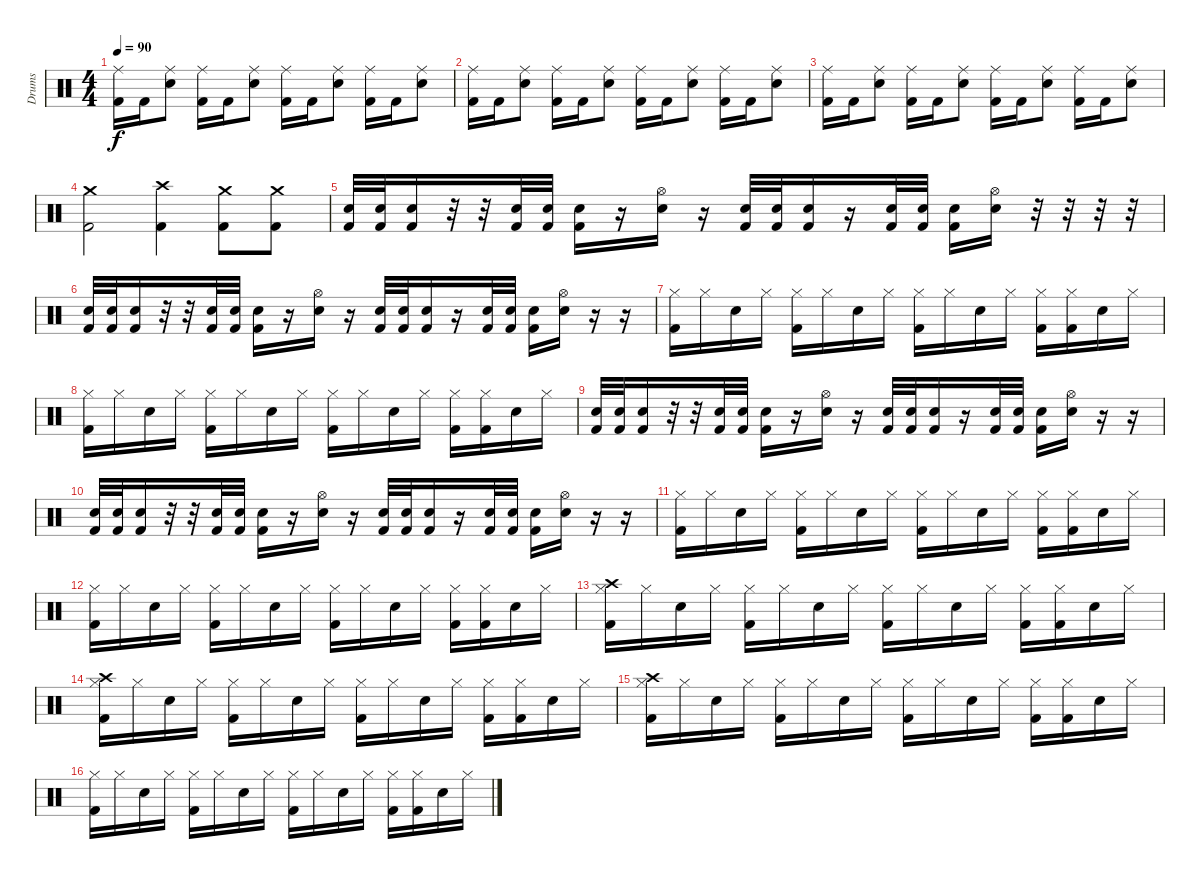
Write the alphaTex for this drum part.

\track ("Drums" "Drums") {instrument percussion}
\staff {score}
\articulation defaults
\ts (4 4)
\tempo 90
\clef neutral
\ks c
("Ride (middle)" "Kick (hit) 2").16{dy f} "Kick (hit) 2".16 ("Ride (middle)" "Electric Snare (hit)").8 ("Ride (middle)" "Kick (hit) 2").16 "Kick (hit) 2".16 ("Ride (middle)" "Electric Snare (hit)").8 ("Ride (middle)" "Kick (hit) 2").16 "Kick (hit) 2".16 ("Ride (middle)" "Electric Snare (hit)").8 ("Ride (middle)" "Kick (hit) 2").16 "Kick (hit) 2".16 ("Ride (middle)" "Electric Snare (hit)").8 |
("Ride (middle)" "Kick (hit) 2").16 "Kick (hit) 2".16 ("Ride (middle)" "Electric Snare (hit)").8 ("Ride (middle)" "Kick (hit) 2").16 "Kick (hit) 2".16 ("Ride (middle)" "Electric Snare (hit)").8 ("Ride (middle)" "Kick (hit) 2").16 "Kick (hit) 2".16 ("Ride (middle)" "Electric Snare (hit)").8 ("Ride (middle)" "Kick (hit) 2").16 "Kick (hit) 2".16 ("Ride (middle)" "Electric Snare (hit)").8 |
("Ride (middle)" "Kick (hit) 2").16 "Kick (hit) 2".16 ("Ride (middle)" "Electric Snare (hit)").8 ("Ride (middle)" "Kick (hit) 2").16 "Kick (hit) 2".16 ("Ride (middle)" "Electric Snare (hit)").8 ("Ride (middle)" "Kick (hit) 2").16 "Kick (hit) 2".16 ("Ride (middle)" "Electric Snare (hit)").8 ("Ride (middle)" "Kick (hit) 2").16 "Kick (hit) 2".16 ("Ride (middle)" "Electric Snare (hit)").8 |
("Crash medium (hit)" "Kick (hit) 2").2 ("Crash high (hit)" "Kick (hit) 2").4 ("Crash medium (hit)" "Kick (hit) 2").8 ("Crash medium (hit)" "Kick (hit) 2").8 |
("Electric Snare (hit)" "Kick (hit) 2").32 ("Electric Snare (hit)" "Kick (hit) 2").32 ("Electric Snare (hit)" "Kick (hit) 2").16 r.32 r.32 ("Electric Snare (hit)" "Kick (hit) 2").32 ("Electric Snare (hit)" "Kick (hit) 2").32 ("Electric Snare (hit)" "Kick (hit) 2").16 r.16 ("Hi-Hat (open)" "Electric Snare (hit)").16 r.16 ("Electric Snare (hit)" "Kick (hit) 2").32 ("Electric Snare (hit)" "Kick (hit) 2").32 ("Electric Snare (hit)" "Kick (hit) 2").16 r.16 ("Electric Snare (hit)" "Kick (hit) 2").32 ("Electric Snare (hit)" "Kick (hit) 2").32 ("Electric Snare (hit)" "Kick (hit) 2").16 ("Hi-Hat (open)" "Electric Snare (hit)").16 r.32 r.32 r.32 r.32 |
("Electric Snare (hit)" "Kick (hit) 2").32 ("Electric Snare (hit)" "Kick (hit) 2").32 ("Electric Snare (hit)" "Kick (hit) 2").16 r.32 r.32 ("Electric Snare (hit)" "Kick (hit) 2").32 ("Electric Snare (hit)" "Kick (hit) 2").32 ("Electric Snare (hit)" "Kick (hit) 2").16 r.16 ("Hi-Hat (open)" "Electric Snare (hit)").16 r.16 ("Electric Snare (hit)" "Kick (hit) 2").32 ("Electric Snare (hit)" "Kick (hit) 2").32 ("Electric Snare (hit)" "Kick (hit) 2").16 r.16 ("Electric Snare (hit)" "Kick (hit) 2").32 ("Electric Snare (hit)" "Kick (hit) 2").32 ("Electric Snare (hit)" "Kick (hit) 2").16 ("Hi-Hat (open)" "Electric Snare (hit)").16 r.16 r.16 |
("Hi-Hat (closed)" "Kick (hit) 2").16 "Hi-Hat (closed)".16 "Electric Snare (hit)".16 "Hi-Hat (closed)".16 ("Hi-Hat (closed)" "Kick (hit) 2").16 "Hi-Hat (closed)".16 "Electric Snare (hit)".16 "Hi-Hat (closed)".16 ("Hi-Hat (closed)" "Kick (hit) 2").16 "Hi-Hat (closed)".16 "Electric Snare (hit)".16 "Hi-Hat (closed)".16 ("Hi-Hat (closed)" "Kick (hit) 2").16 ("Hi-Hat (closed)" "Kick (hit) 2").16 "Electric Snare (hit)".16 "Hi-Hat (closed)".16 |
("Hi-Hat (closed)" "Kick (hit) 2").16 "Hi-Hat (closed)".16 "Electric Snare (hit)".16 "Hi-Hat (closed)".16 ("Hi-Hat (closed)" "Kick (hit) 2").16 "Hi-Hat (closed)".16 "Electric Snare (hit)".16 "Hi-Hat (closed)".16 ("Hi-Hat (closed)" "Kick (hit) 2").16 "Hi-Hat (closed)".16 "Electric Snare (hit)".16 "Hi-Hat (closed)".16 ("Hi-Hat (closed)" "Kick (hit) 2").16 ("Hi-Hat (closed)" "Kick (hit) 2").16 "Electric Snare (hit)".16 "Hi-Hat (closed)".16 |
("Electric Snare (hit)" "Kick (hit) 2").32 ("Electric Snare (hit)" "Kick (hit) 2").32 ("Electric Snare (hit)" "Kick (hit) 2").16 r.32 r.32 ("Electric Snare (hit)" "Kick (hit) 2").32 ("Electric Snare (hit)" "Kick (hit) 2").32 ("Electric Snare (hit)" "Kick (hit) 2").16 r.16 ("Hi-Hat (open)" "Electric Snare (hit)").16 r.16 ("Electric Snare (hit)" "Kick (hit) 2").32 ("Electric Snare (hit)" "Kick (hit) 2").32 ("Electric Snare (hit)" "Kick (hit) 2").16 r.16 ("Electric Snare (hit)" "Kick (hit) 2").32 ("Electric Snare (hit)" "Kick (hit) 2").32 ("Electric Snare (hit)" "Kick (hit) 2").16 ("Hi-Hat (open)" "Electric Snare (hit)").16 r.16 r.16 |
("Electric Snare (hit)" "Kick (hit) 2").32 ("Electric Snare (hit)" "Kick (hit) 2").32 ("Electric Snare (hit)" "Kick (hit) 2").16 r.32 r.32 ("Electric Snare (hit)" "Kick (hit) 2").32 ("Electric Snare (hit)" "Kick (hit) 2").32 ("Electric Snare (hit)" "Kick (hit) 2").16 r.16 ("Hi-Hat (open)" "Electric Snare (hit)").16 r.16 ("Electric Snare (hit)" "Kick (hit) 2").32 ("Electric Snare (hit)" "Kick (hit) 2").32 ("Electric Snare (hit)" "Kick (hit) 2").16 r.16 ("Electric Snare (hit)" "Kick (hit) 2").32 ("Electric Snare (hit)" "Kick (hit) 2").32 ("Electric Snare (hit)" "Kick (hit) 2").16 ("Hi-Hat (open)" "Electric Snare (hit)").16 r.16 r.16 |
("Hi-Hat (closed)" "Kick (hit) 2").16 "Hi-Hat (closed)".16 "Electric Snare (hit)".16 "Hi-Hat (closed)".16 ("Hi-Hat (closed)" "Kick (hit) 2").16 "Hi-Hat (closed)".16 "Electric Snare (hit)".16 "Hi-Hat (closed)".16 ("Hi-Hat (closed)" "Kick (hit) 2").16 "Hi-Hat (closed)".16 "Electric Snare (hit)".16 "Hi-Hat (closed)".16 ("Hi-Hat (closed)" "Kick (hit) 2").16 ("Hi-Hat (closed)" "Kick (hit) 2").16 "Electric Snare (hit)".16 "Hi-Hat (closed)".16 |
("Hi-Hat (closed)" "Kick (hit) 2").16 "Hi-Hat (closed)".16 "Electric Snare (hit)".16 "Hi-Hat (closed)".16 ("Hi-Hat (closed)" "Kick (hit) 2").16 "Hi-Hat (closed)".16 "Electric Snare (hit)".16 "Hi-Hat (closed)".16 ("Hi-Hat (closed)" "Kick (hit) 2").16 "Hi-Hat (closed)".16 "Electric Snare (hit)".16 "Hi-Hat (closed)".16 ("Hi-Hat (closed)" "Kick (hit) 2").16 ("Hi-Hat (closed)" "Kick (hit) 2").16 "Electric Snare (hit)".16 "Hi-Hat (closed)".16 |
("Crash high (hit)" "Hi-Hat (closed)" "Kick (hit) 2").16 "Hi-Hat (closed)".16 "Electric Snare (hit)".16 "Hi-Hat (closed)".16 ("Hi-Hat (closed)" "Kick (hit) 2").16 "Hi-Hat (closed)".16 "Electric Snare (hit)".16 "Hi-Hat (closed)".16 ("Hi-Hat (closed)" "Kick (hit) 2").16 "Hi-Hat (closed)".16 "Electric Snare (hit)".16 "Hi-Hat (closed)".16 ("Hi-Hat (closed)" "Kick (hit) 2").16 ("Hi-Hat (closed)" "Kick (hit) 2").16 "Electric Snare (hit)".16 "Hi-Hat (closed)".16 |
("Crash high (hit)" "Hi-Hat (closed)" "Kick (hit) 2").16 "Hi-Hat (closed)".16 "Electric Snare (hit)".16 "Hi-Hat (closed)".16 ("Hi-Hat (closed)" "Kick (hit) 2").16 "Hi-Hat (closed)".16 "Electric Snare (hit)".16 "Hi-Hat (closed)".16 ("Hi-Hat (closed)" "Kick (hit) 2").16 "Hi-Hat (closed)".16 "Electric Snare (hit)".16 "Hi-Hat (closed)".16 ("Hi-Hat (closed)" "Kick (hit) 2").16 ("Hi-Hat (closed)" "Kick (hit) 2").16 "Electric Snare (hit)".16 "Hi-Hat (closed)".16 |
("Crash high (hit)" "Hi-Hat (closed)" "Kick (hit) 2").16 "Hi-Hat (closed)".16 "Electric Snare (hit)".16 "Hi-Hat (closed)".16 ("Hi-Hat (closed)" "Kick (hit) 2").16 "Hi-Hat (closed)".16 "Electric Snare (hit)".16 "Hi-Hat (closed)".16 ("Hi-Hat (closed)" "Kick (hit) 2").16 "Hi-Hat (closed)".16 "Electric Snare (hit)".16 "Hi-Hat (closed)".16 ("Hi-Hat (closed)" "Kick (hit) 2").16 ("Hi-Hat (closed)" "Kick (hit) 2").16 "Electric Snare (hit)".16 "Hi-Hat (closed)".16 |
("Hi-Hat (closed)" "Kick (hit) 2").16 "Hi-Hat (closed)".16 "Electric Snare (hit)".16 "Hi-Hat (closed)".16 ("Hi-Hat (closed)" "Kick (hit) 2").16 "Hi-Hat (closed)".16 "Electric Snare (hit)".16 "Hi-Hat (closed)".16 ("Hi-Hat (closed)" "Kick (hit) 2").16 "Hi-Hat (closed)".16 "Electric Snare (hit)".16 "Hi-Hat (closed)".16 ("Hi-Hat (closed)" "Kick (hit) 2").16 ("Hi-Hat (closed)" "Kick (hit) 2").16 "Electric Snare (hit)".16 "Hi-Hat (closed)".16
